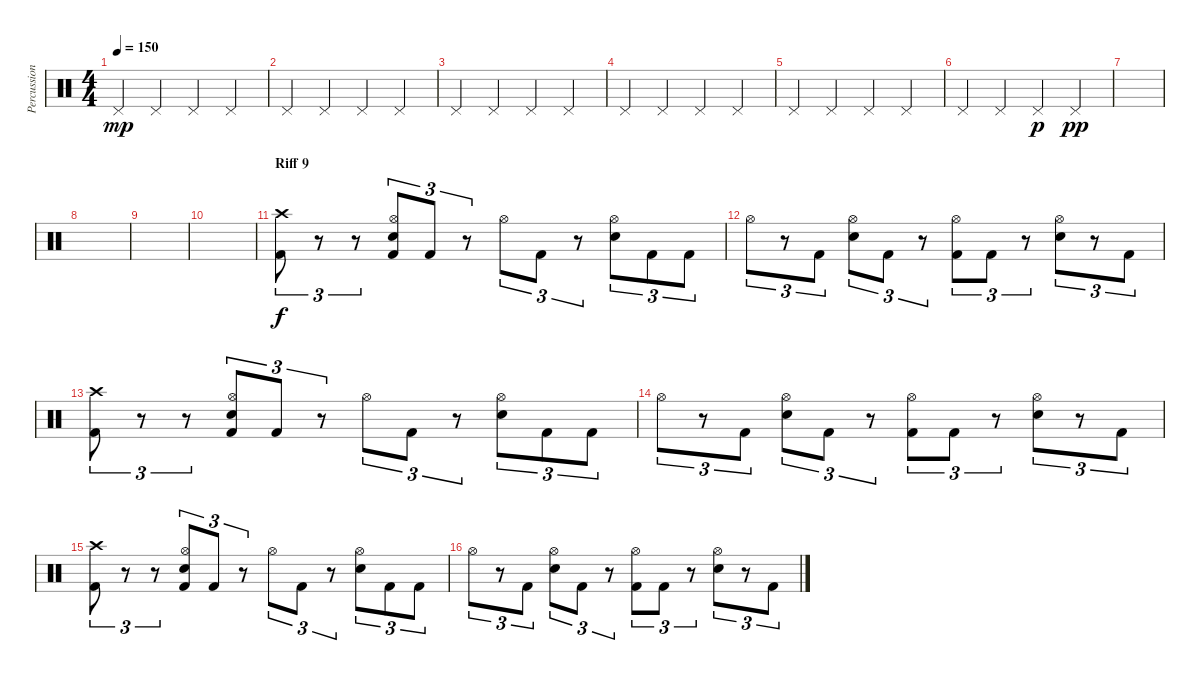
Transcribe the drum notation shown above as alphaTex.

\track ("Percussion" "Percussion") {instrument percussion}
\staff {score}
\articulation defaults
\ts (4 4)
\tempo 150
\clef neutral
\ks c "Pedal Hi-Hat (hit)".4{dy mp} "Pedal Hi-Hat (hit)".4 "Pedal Hi-Hat (hit)".4 "Pedal Hi-Hat (hit)".4
|
"Pedal Hi-Hat (hit)".4 "Pedal Hi-Hat (hit)".4 "Pedal Hi-Hat (hit)".4 "Pedal Hi-Hat (hit)".4 |
"Pedal Hi-Hat (hit)".4 "Pedal Hi-Hat (hit)".4 "Pedal Hi-Hat (hit)".4 "Pedal Hi-Hat (hit)".4 |
"Pedal Hi-Hat (hit)".4 "Pedal Hi-Hat (hit)".4 "Pedal Hi-Hat (hit)".4 "Pedal Hi-Hat (hit)".4 |
"Pedal Hi-Hat (hit)".4 "Pedal Hi-Hat (hit)".4 "Pedal Hi-Hat (hit)".4 "Pedal Hi-Hat (hit)".4 |
"Pedal Hi-Hat (hit)".4 "Pedal Hi-Hat (hit)".4 "Pedal Hi-Hat (hit)".4{dy p} "Pedal Hi-Hat (hit)".4{dy pp} |
|
|
|
|
\section ("" "Riff 9")
("Crash high (hit)" "Kick (hit) 2").8{tu (3 2) dy f} r.8{tu (3 2)} r.8{tu (3 2)} ("Hi-Hat (open)" "Electric Snare (hit)" "Kick (hit) 2").8{tu (3 2)} "Kick (hit) 2".8{tu (3 2)} r.8{tu (3 2)} "Hi-Hat (open)".8{tu (3 2)} "Kick (hit) 2".8{tu (3 2)} r.8{tu (3 2)} ("Hi-Hat (open)" "Electric Snare (hit)").8{tu (3 2)} "Kick (hit) 2".8{tu (3 2)} "Kick (hit) 2".8{tu (3 2)} |
"Hi-Hat (open)".8{tu (3 2)} r.8{tu (3 2)} "Kick (hit) 2".8{tu (3 2)} ("Hi-Hat (open)" "Electric Snare (hit)").8{tu (3 2)} "Kick (hit) 2".8{tu (3 2)} r.8{tu (3 2)} ("Hi-Hat (open)" "Kick (hit) 2").8{tu (3 2)} "Kick (hit) 2".8{tu (3 2)} r.8{tu (3 2)} ("Hi-Hat (open)" "Electric Snare (hit)").8{tu (3 2)} r.8{tu (3 2)} "Kick (hit) 2".8{tu (3 2)} |
("Crash high (hit)" "Kick (hit) 2").8{tu (3 2)} r.8{tu (3 2)} r.8{tu (3 2)} ("Hi-Hat (open)" "Electric Snare (hit)" "Kick (hit) 2").8{tu (3 2)} "Kick (hit) 2".8{tu (3 2)} r.8{tu (3 2)} "Hi-Hat (open)".8{tu (3 2)} "Kick (hit) 2".8{tu (3 2)} r.8{tu (3 2)} ("Hi-Hat (open)" "Electric Snare (hit)").8{tu (3 2)} "Kick (hit) 2".8{tu (3 2)} "Kick (hit) 2".8{tu (3 2)} |
"Hi-Hat (open)".8{tu (3 2)} r.8{tu (3 2)} "Kick (hit) 2".8{tu (3 2)} ("Hi-Hat (open)" "Electric Snare (hit)").8{tu (3 2)} "Kick (hit) 2".8{tu (3 2)} r.8{tu (3 2)} ("Hi-Hat (open)" "Kick (hit) 2").8{tu (3 2)} "Kick (hit) 2".8{tu (3 2)} r.8{tu (3 2)} ("Hi-Hat (open)" "Electric Snare (hit)").8{tu (3 2)} r.8{tu (3 2)} "Kick (hit) 2".8{tu (3 2)} |
("Crash high (hit)" "Kick (hit) 2").8{tu (3 2)} r.8{tu (3 2)} r.8{tu (3 2)} ("Hi-Hat (open)" "Electric Snare (hit)" "Kick (hit) 2").8{tu (3 2)} "Kick (hit) 2".8{tu (3 2)} r.8{tu (3 2)} "Hi-Hat (open)".8{tu (3 2)} "Kick (hit) 2".8{tu (3 2)} r.8{tu (3 2)} ("Hi-Hat (open)" "Electric Snare (hit)").8{tu (3 2)} "Kick (hit) 2".8{tu (3 2)} "Kick (hit) 2".8{tu (3 2)} |
"Hi-Hat (open)".8{tu (3 2)} r.8{tu (3 2)} "Kick (hit) 2".8{tu (3 2)} ("Hi-Hat (open)" "Electric Snare (hit)").8{tu (3 2)} "Kick (hit) 2".8{tu (3 2)} r.8{tu (3 2)} ("Hi-Hat (open)" "Kick (hit) 2").8{tu (3 2)} "Kick (hit) 2".8{tu (3 2)} r.8{tu (3 2)} ("Hi-Hat (open)" "Electric Snare (hit)").8{tu (3 2)} r.8{tu (3 2)} "Kick (hit) 2".8{tu (3 2)}
